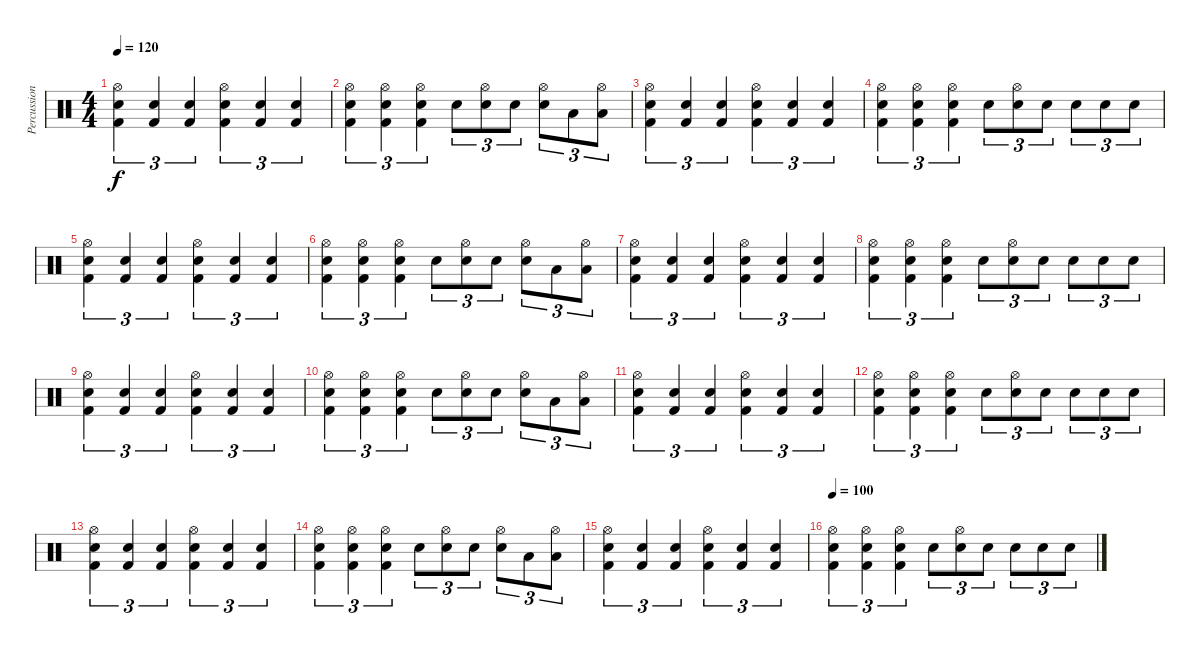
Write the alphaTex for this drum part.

\track ("Percussion" "Percussion") {instrument percussion}
\staff {score}
\articulation defaults
\ts (4 4)
\tempo 120
\clef neutral
\ks c
("Hi-Hat (open)" "Snare (hit) 2" "Kick (hit) 2").4{tu (3 2) dy f} ("Electric Snare (hit)" "Kick (hit) 2").4{tu (3 2)} ("Electric Snare (hit)" "Kick (hit) 2").4{tu (3 2)} ("Hi-Hat (open)" "Snare (hit) 2" "Kick (hit) 2").4{tu (3 2)} ("Electric Snare (hit)" "Kick (hit) 2").4{tu (3 2)} ("Electric Snare (hit)" "Kick (hit) 2").4{tu (3 2)} |
("Hi-Hat (open)" "Snare (hit) 2" "Kick (hit) 2").4{tu (3 2)} ("Hi-Hat (open)" "Snare (hit) 2" "Kick (hit) 2").4{tu (3 2)} ("Hi-Hat (open)" "Snare (hit) 2" "Kick (hit) 2").4{tu (3 2)} "Electric Snare (hit)".8{tu (3 2)} ("Hi-Hat (open)" "Electric Snare (hit)").8{tu (3 2)} "Snare (hit) 2".8{tu (3 2)} ("Hi-Hat (open)" "Snare (hit) 2").8{tu (3 2)} "Low Floor Tom (hit)".8{tu (3 2)} ("Hi-Hat (open)" "Low Floor Tom (hit)").8{tu (3 2)} |
("Hi-Hat (open)" "Snare (hit) 2" "Kick (hit) 2").4{tu (3 2)} ("Electric Snare (hit)" "Kick (hit) 2").4{tu (3 2)} ("Electric Snare (hit)" "Kick (hit) 2").4{tu (3 2)} ("Hi-Hat (open)" "Snare (hit) 2" "Kick (hit) 2").4{tu (3 2)} ("Electric Snare (hit)" "Kick (hit) 2").4{tu (3 2)} ("Electric Snare (hit)" "Kick (hit) 2").4{tu (3 2)} |
("Hi-Hat (open)" "Snare (hit) 2" "Kick (hit) 2").4{tu (3 2)} ("Hi-Hat (open)" "Snare (hit) 2" "Kick (hit) 2").4{tu (3 2)} ("Hi-Hat (open)" "Snare (hit) 2" "Kick (hit) 2").4{tu (3 2)} "Electric Snare (hit)".8{tu (3 2)} ("Hi-Hat (open)" "Electric Snare (hit)").8{tu (3 2)} "Snare (hit) 2".8{tu (3 2)} "Snare (hit) 2".8{tu (3 2)} "Snare (hit) 2".8{tu (3 2)} "Snare (hit) 2".8{tu (3 2)} |
("Hi-Hat (open)" "Snare (hit) 2" "Kick (hit) 2").4{tu (3 2)} ("Electric Snare (hit)" "Kick (hit) 2").4{tu (3 2)} ("Electric Snare (hit)" "Kick (hit) 2").4{tu (3 2)} ("Hi-Hat (open)" "Snare (hit) 2" "Kick (hit) 2").4{tu (3 2)} ("Electric Snare (hit)" "Kick (hit) 2").4{tu (3 2)} ("Electric Snare (hit)" "Kick (hit) 2").4{tu (3 2)} |
("Hi-Hat (open)" "Snare (hit) 2" "Kick (hit) 2").4{tu (3 2)} ("Hi-Hat (open)" "Snare (hit) 2" "Kick (hit) 2").4{tu (3 2)} ("Hi-Hat (open)" "Snare (hit) 2" "Kick (hit) 2").4{tu (3 2)} "Electric Snare (hit)".8{tu (3 2)} ("Hi-Hat (open)" "Electric Snare (hit)").8{tu (3 2)} "Snare (hit) 2".8{tu (3 2)} ("Hi-Hat (open)" "Snare (hit) 2").8{tu (3 2)} "Low Floor Tom (hit)".8{tu (3 2)} ("Hi-Hat (open)" "Low Floor Tom (hit)").8{tu (3 2)} |
("Hi-Hat (open)" "Snare (hit) 2" "Kick (hit) 2").4{tu (3 2)} ("Electric Snare (hit)" "Kick (hit) 2").4{tu (3 2)} ("Electric Snare (hit)" "Kick (hit) 2").4{tu (3 2)} ("Hi-Hat (open)" "Snare (hit) 2" "Kick (hit) 2").4{tu (3 2)} ("Electric Snare (hit)" "Kick (hit) 2").4{tu (3 2)} ("Electric Snare (hit)" "Kick (hit) 2").4{tu (3 2)} |
("Hi-Hat (open)" "Snare (hit) 2" "Kick (hit) 2").4{tu (3 2)} ("Hi-Hat (open)" "Snare (hit) 2" "Kick (hit) 2").4{tu (3 2)} ("Hi-Hat (open)" "Snare (hit) 2" "Kick (hit) 2").4{tu (3 2)} "Electric Snare (hit)".8{tu (3 2)} ("Hi-Hat (open)" "Electric Snare (hit)").8{tu (3 2)} "Snare (hit) 2".8{tu (3 2)} "Snare (hit) 2".8{tu (3 2)} "Snare (hit) 2".8{tu (3 2)} "Snare (hit) 2".8{tu (3 2)} |
("Hi-Hat (open)" "Snare (hit) 2" "Kick (hit) 2").4{tu (3 2)} ("Electric Snare (hit)" "Kick (hit) 2").4{tu (3 2)} ("Electric Snare (hit)" "Kick (hit) 2").4{tu (3 2)} ("Hi-Hat (open)" "Snare (hit) 2" "Kick (hit) 2").4{tu (3 2)} ("Electric Snare (hit)" "Kick (hit) 2").4{tu (3 2)} ("Electric Snare (hit)" "Kick (hit) 2").4{tu (3 2)} |
("Hi-Hat (open)" "Snare (hit) 2" "Kick (hit) 2").4{tu (3 2)} ("Hi-Hat (open)" "Snare (hit) 2" "Kick (hit) 2").4{tu (3 2)} ("Hi-Hat (open)" "Snare (hit) 2" "Kick (hit) 2").4{tu (3 2)} "Electric Snare (hit)".8{tu (3 2)} ("Hi-Hat (open)" "Electric Snare (hit)").8{tu (3 2)} "Snare (hit) 2".8{tu (3 2)} ("Hi-Hat (open)" "Snare (hit) 2").8{tu (3 2)} "Low Floor Tom (hit)".8{tu (3 2)} ("Hi-Hat (open)" "Low Floor Tom (hit)").8{tu (3 2)} |
("Hi-Hat (open)" "Snare (hit) 2" "Kick (hit) 2").4{tu (3 2)} ("Electric Snare (hit)" "Kick (hit) 2").4{tu (3 2)} ("Electric Snare (hit)" "Kick (hit) 2").4{tu (3 2)} ("Hi-Hat (open)" "Snare (hit) 2" "Kick (hit) 2").4{tu (3 2)} ("Electric Snare (hit)" "Kick (hit) 2").4{tu (3 2)} ("Electric Snare (hit)" "Kick (hit) 2").4{tu (3 2)} |
("Hi-Hat (open)" "Snare (hit) 2" "Kick (hit) 2").4{tu (3 2)} ("Hi-Hat (open)" "Snare (hit) 2" "Kick (hit) 2").4{tu (3 2)} ("Hi-Hat (open)" "Snare (hit) 2" "Kick (hit) 2").4{tu (3 2)} "Electric Snare (hit)".8{tu (3 2)} ("Hi-Hat (open)" "Electric Snare (hit)").8{tu (3 2)} "Snare (hit) 2".8{tu (3 2)} "Snare (hit) 2".8{tu (3 2)} "Snare (hit) 2".8{tu (3 2)} "Snare (hit) 2".8{tu (3 2)} |
("Hi-Hat (open)" "Snare (hit) 2" "Kick (hit) 2").4{tu (3 2)} ("Electric Snare (hit)" "Kick (hit) 2").4{tu (3 2)} ("Electric Snare (hit)" "Kick (hit) 2").4{tu (3 2)} ("Hi-Hat (open)" "Snare (hit) 2" "Kick (hit) 2").4{tu (3 2)} ("Electric Snare (hit)" "Kick (hit) 2").4{tu (3 2)} ("Electric Snare (hit)" "Kick (hit) 2").4{tu (3 2)} |
("Hi-Hat (open)" "Snare (hit) 2" "Kick (hit) 2").4{tu (3 2)} ("Hi-Hat (open)" "Snare (hit) 2" "Kick (hit) 2").4{tu (3 2)} ("Hi-Hat (open)" "Snare (hit) 2" "Kick (hit) 2").4{tu (3 2)} "Electric Snare (hit)".8{tu (3 2)} ("Hi-Hat (open)" "Electric Snare (hit)").8{tu (3 2)} "Snare (hit) 2".8{tu (3 2)} ("Hi-Hat (open)" "Snare (hit) 2").8{tu (3 2)} "Low Floor Tom (hit)".8{tu (3 2)} ("Hi-Hat (open)" "Low Floor Tom (hit)").8{tu (3 2)} |
("Hi-Hat (open)" "Snare (hit) 2" "Kick (hit) 2").4{tu (3 2)} ("Electric Snare (hit)" "Kick (hit) 2").4{tu (3 2)} ("Electric Snare (hit)" "Kick (hit) 2").4{tu (3 2)} ("Hi-Hat (open)" "Snare (hit) 2" "Kick (hit) 2").4{tu (3 2)} ("Electric Snare (hit)" "Kick (hit) 2").4{tu (3 2)} ("Electric Snare (hit)" "Kick (hit) 2").4{tu (3 2)} |
\tempo 100
("Hi-Hat (open)" "Snare (hit) 2" "Kick (hit) 2").4{tu (3 2)} ("Hi-Hat (open)" "Snare (hit) 2" "Kick (hit) 2").4{tu (3 2)} ("Hi-Hat (open)" "Snare (hit) 2" "Kick (hit) 2").4{tu (3 2)} "Electric Snare (hit)".8{tu (3 2)} ("Hi-Hat (open)" "Electric Snare (hit)").8{tu (3 2)} "Snare (hit) 2".8{tu (3 2)} "Snare (hit) 2".8{tu (3 2)} "Snare (hit) 2".8{tu (3 2)} "Snare (hit) 2".8{tu (3 2)}
